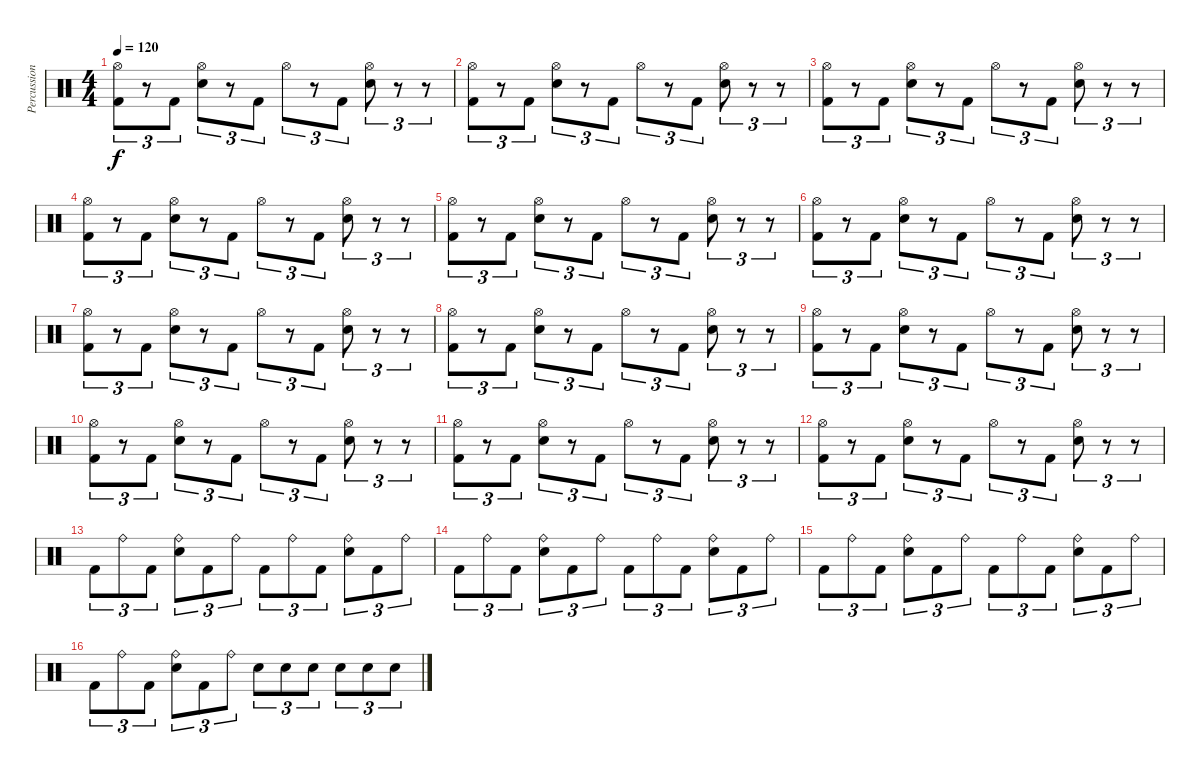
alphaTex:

\track ("Percussion" "Percussion") {instrument percussion}
\staff {score}
\articulation defaults
\ts (4 4)
\tempo 120
\clef neutral
\ks c
("Hi-Hat (open)" "Kick (hit) 2").8{tu (3 2) dy f} r.8{tu (3 2)} "Kick (hit) 2".8{tu (3 2)} ("Hi-Hat (open)" "Electric Snare (hit)").8{tu (3 2)} r.8{tu (3 2)} "Kick (hit) 2".8{tu (3 2)} "Hi-Hat (open)".8{tu (3 2)} r.8{tu (3 2)} "Kick (hit) 2".8{tu (3 2)} ("Hi-Hat (open)" "Electric Snare (hit)").8{tu (3 2)} r.8{tu (3 2)} r.8{tu (3 2)} |
("Hi-Hat (open)" "Kick (hit) 2").8{tu (3 2)} r.8{tu (3 2)} "Kick (hit) 2".8{tu (3 2)} ("Hi-Hat (open)" "Electric Snare (hit)").8{tu (3 2)} r.8{tu (3 2)} "Kick (hit) 2".8{tu (3 2)} "Hi-Hat (open)".8{tu (3 2)} r.8{tu (3 2)} "Kick (hit) 2".8{tu (3 2)} ("Hi-Hat (open)" "Electric Snare (hit)").8{tu (3 2)} r.8{tu (3 2)} r.8{tu (3 2)} |
("Hi-Hat (open)" "Kick (hit) 2").8{tu (3 2)} r.8{tu (3 2)} "Kick (hit) 2".8{tu (3 2)} ("Hi-Hat (open)" "Electric Snare (hit)").8{tu (3 2)} r.8{tu (3 2)} "Kick (hit) 2".8{tu (3 2)} "Hi-Hat (open)".8{tu (3 2)} r.8{tu (3 2)} "Kick (hit) 2".8{tu (3 2)} ("Hi-Hat (open)" "Electric Snare (hit)").8{tu (3 2)} r.8{tu (3 2)} r.8{tu (3 2)} |
("Hi-Hat (open)" "Kick (hit) 2").8{tu (3 2)} r.8{tu (3 2)} "Kick (hit) 2".8{tu (3 2)} ("Hi-Hat (open)" "Electric Snare (hit)").8{tu (3 2)} r.8{tu (3 2)} "Kick (hit) 2".8{tu (3 2)} "Hi-Hat (open)".8{tu (3 2)} r.8{tu (3 2)} "Kick (hit) 2".8{tu (3 2)} ("Hi-Hat (open)" "Electric Snare (hit)").8{tu (3 2)} r.8{tu (3 2)} r.8{tu (3 2)} |
("Hi-Hat (open)" "Kick (hit) 2").8{tu (3 2)} r.8{tu (3 2)} "Kick (hit) 2".8{tu (3 2)} ("Hi-Hat (open)" "Electric Snare (hit)").8{tu (3 2)} r.8{tu (3 2)} "Kick (hit) 2".8{tu (3 2)} "Hi-Hat (open)".8{tu (3 2)} r.8{tu (3 2)} "Kick (hit) 2".8{tu (3 2)} ("Hi-Hat (open)" "Electric Snare (hit)").8{tu (3 2)} r.8{tu (3 2)} r.8{tu (3 2)} |
("Hi-Hat (open)" "Kick (hit) 2").8{tu (3 2)} r.8{tu (3 2)} "Kick (hit) 2".8{tu (3 2)} ("Hi-Hat (open)" "Electric Snare (hit)").8{tu (3 2)} r.8{tu (3 2)} "Kick (hit) 2".8{tu (3 2)} "Hi-Hat (open)".8{tu (3 2)} r.8{tu (3 2)} "Kick (hit) 2".8{tu (3 2)} ("Hi-Hat (open)" "Electric Snare (hit)").8{tu (3 2)} r.8{tu (3 2)} r.8{tu (3 2)} |
("Hi-Hat (open)" "Kick (hit) 2").8{tu (3 2)} r.8{tu (3 2)} "Kick (hit) 2".8{tu (3 2)} ("Hi-Hat (open)" "Electric Snare (hit)").8{tu (3 2)} r.8{tu (3 2)} "Kick (hit) 2".8{tu (3 2)} "Hi-Hat (open)".8{tu (3 2)} r.8{tu (3 2)} "Kick (hit) 2".8{tu (3 2)} ("Hi-Hat (open)" "Electric Snare (hit)").8{tu (3 2)} r.8{tu (3 2)} r.8{tu (3 2)} |
("Hi-Hat (open)" "Kick (hit) 2").8{tu (3 2)} r.8{tu (3 2)} "Kick (hit) 2".8{tu (3 2)} ("Hi-Hat (open)" "Electric Snare (hit)").8{tu (3 2)} r.8{tu (3 2)} "Kick (hit) 2".8{tu (3 2)} "Hi-Hat (open)".8{tu (3 2)} r.8{tu (3 2)} "Kick (hit) 2".8{tu (3 2)} ("Hi-Hat (open)" "Electric Snare (hit)").8{tu (3 2)} r.8{tu (3 2)} r.8{tu (3 2)} |
("Hi-Hat (open)" "Kick (hit) 2").8{tu (3 2)} r.8{tu (3 2)} "Kick (hit) 2".8{tu (3 2)} ("Hi-Hat (open)" "Electric Snare (hit)").8{tu (3 2)} r.8{tu (3 2)} "Kick (hit) 2".8{tu (3 2)} "Hi-Hat (open)".8{tu (3 2)} r.8{tu (3 2)} "Kick (hit) 2".8{tu (3 2)} ("Hi-Hat (open)" "Electric Snare (hit)").8{tu (3 2)} r.8{tu (3 2)} r.8{tu (3 2)} |
("Hi-Hat (open)" "Kick (hit) 2").8{tu (3 2)} r.8{tu (3 2)} "Kick (hit) 2".8{tu (3 2)} ("Hi-Hat (open)" "Electric Snare (hit)").8{tu (3 2)} r.8{tu (3 2)} "Kick (hit) 2".8{tu (3 2)} "Hi-Hat (open)".8{tu (3 2)} r.8{tu (3 2)} "Kick (hit) 2".8{tu (3 2)} ("Hi-Hat (open)" "Electric Snare (hit)").8{tu (3 2)} r.8{tu (3 2)} r.8{tu (3 2)} |
("Hi-Hat (open)" "Kick (hit) 2").8{tu (3 2)} r.8{tu (3 2)} "Kick (hit) 2".8{tu (3 2)} ("Hi-Hat (open)" "Electric Snare (hit)").8{tu (3 2)} r.8{tu (3 2)} "Kick (hit) 2".8{tu (3 2)} "Hi-Hat (open)".8{tu (3 2)} r.8{tu (3 2)} "Kick (hit) 2".8{tu (3 2)} ("Hi-Hat (open)" "Electric Snare (hit)").8{tu (3 2)} r.8{tu (3 2)} r.8{tu (3 2)} |
("Hi-Hat (open)" "Kick (hit) 2").8{tu (3 2)} r.8{tu (3 2)} "Kick (hit) 2".8{tu (3 2)} ("Hi-Hat (open)" "Electric Snare (hit)").8{tu (3 2)} r.8{tu (3 2)} "Kick (hit) 2".8{tu (3 2)} "Hi-Hat (open)".8{tu (3 2)} r.8{tu (3 2)} "Kick (hit) 2".8{tu (3 2)} ("Hi-Hat (open)" "Electric Snare (hit)").8{tu (3 2)} r.8{tu (3 2)} r.8{tu (3 2)} |
"Kick (hit) 2".8{tu (3 2)} "Ride (bell)".8{tu (3 2)} "Kick (hit) 2".8{tu (3 2)} ("Ride (bell)" "Electric Snare (hit)").8{tu (3 2)} "Kick (hit) 2".8{tu (3 2)} "Ride (bell)".8{tu (3 2)} "Kick (hit) 2".8{tu (3 2)} "Ride (bell)".8{tu (3 2)} "Kick (hit) 2".8{tu (3 2)} ("Ride (bell)" "Electric Snare (hit)").8{tu (3 2)} "Kick (hit) 2".8{tu (3 2)} "Ride (bell)".8{tu (3 2)} |
"Kick (hit) 2".8{tu (3 2)} "Ride (bell)".8{tu (3 2)} "Kick (hit) 2".8{tu (3 2)} ("Ride (bell)" "Electric Snare (hit)").8{tu (3 2)} "Kick (hit) 2".8{tu (3 2)} "Ride (bell)".8{tu (3 2)} "Kick (hit) 2".8{tu (3 2)} "Ride (bell)".8{tu (3 2)} "Kick (hit) 2".8{tu (3 2)} ("Ride (bell)" "Electric Snare (hit)").8{tu (3 2)} "Kick (hit) 2".8{tu (3 2)} "Ride (bell)".8{tu (3 2)} |
"Kick (hit) 2".8{tu (3 2)} "Ride (bell)".8{tu (3 2)} "Kick (hit) 2".8{tu (3 2)} ("Ride (bell)" "Electric Snare (hit)").8{tu (3 2)} "Kick (hit) 2".8{tu (3 2)} "Ride (bell)".8{tu (3 2)} "Kick (hit) 2".8{tu (3 2)} "Ride (bell)".8{tu (3 2)} "Kick (hit) 2".8{tu (3 2)} ("Ride (bell)" "Electric Snare (hit)").8{tu (3 2)} "Kick (hit) 2".8{tu (3 2)} "Ride (bell)".8{tu (3 2)} |
"Kick (hit) 2".8{tu (3 2)} "Ride (bell)".8{tu (3 2)} "Kick (hit) 2".8{tu (3 2)} ("Ride (bell)" "Electric Snare (hit)").8{tu (3 2)} "Kick (hit) 2".8{tu (3 2)} "Ride (bell)".8{tu (3 2)} "Electric Snare (hit)".8{tu (3 2)} "Electric Snare (hit)".8{tu (3 2)} "Electric Snare (hit)".8{tu (3 2)} "Electric Snare (hit)".8{tu (3 2)} "Electric Snare (hit)".8{tu (3 2)} "Electric Snare (hit)".8{tu (3 2)}
